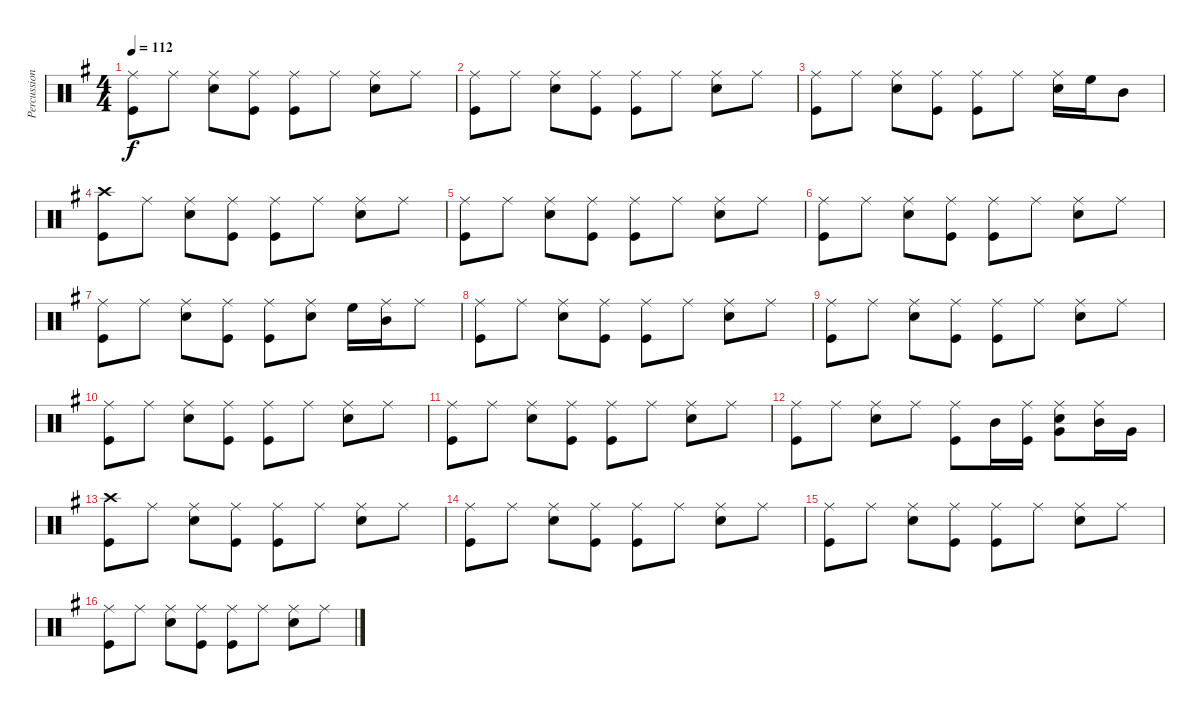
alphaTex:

\track ("Percussion" "Percussion") {instrument percussion}
\staff {score}
\articulation defaults
\ts (4 4)
\tempo 112
\clef neutral
\ks g
("Ride (middle)" "Kick (hit)").8{dy f} "Ride (middle)".8 ("Ride (middle)" "Snare (hit) 2").8 ("Ride (middle)" "Kick (hit)").8 ("Ride (middle)" "Kick (hit)").8 "Ride (middle)".8 ("Ride (middle)" "Snare (hit) 2").8 "Ride (middle)".8 |
("Ride (middle)" "Kick (hit)").8 "Ride (middle)".8 ("Ride (middle)" "Snare (hit) 2").8 ("Ride (middle)" "Kick (hit)").8 ("Ride (middle)" "Kick (hit)").8 "Ride (middle)".8 ("Ride (middle)" "Snare (hit) 2").8 "Ride (middle)".8 |
("Ride (middle)" "Kick (hit)").8 "Ride (middle)".8 ("Ride (middle)" "Snare (hit) 2").8 ("Ride (middle)" "Kick (hit)").8 ("Ride (middle)" "Kick (hit)").8 "Ride (middle)".8 ("Ride (middle)" "Snare (hit) 2").16 "High Floor Tom (hit)".16 "Mid Tom (hit)".8 |
("Crash high (hit)" "Kick (hit)").8 "Ride (middle)".8 ("Ride (middle)" "Snare (hit) 2").8 ("Ride (middle)" "Kick (hit)").8 ("Ride (middle)" "Kick (hit)").8 "Ride (middle)".8 ("Ride (middle)" "Snare (hit) 2").8 "Ride (middle)".8 |
("Ride (middle)" "Kick (hit)").8 "Ride (middle)".8 ("Ride (middle)" "Snare (hit) 2").8 ("Ride (middle)" "Kick (hit)").8 ("Ride (middle)" "Kick (hit)").8 "Ride (middle)".8 ("Ride (middle)" "Snare (hit) 2").8 "Ride (middle)".8 |
("Ride (middle)" "Kick (hit)").8 "Ride (middle)".8 ("Ride (middle)" "Snare (hit) 2").8 ("Ride (middle)" "Kick (hit)").8 ("Ride (middle)" "Kick (hit)").8 "Ride (middle)".8 ("Ride (middle)" "Snare (hit) 2").8 "Ride (middle)".8 |
("Ride (middle)" "Kick (hit)").8 "Ride (middle)".8 ("Ride (middle)" "Snare (hit) 2").8 ("Ride (middle)" "Kick (hit)").8 ("Ride (middle)" "Kick (hit)").8 ("Ride (middle)" "Snare (hit) 2").8 "High Floor Tom (hit)".16 ("Ride (middle)" "Mid Tom (hit)").16 "Ride (middle)".8 |
("Ride (middle)" "Kick (hit)").8 "Ride (middle)".8 ("Ride (middle)" "Snare (hit) 2").8 ("Ride (middle)" "Kick (hit)").8 ("Ride (middle)" "Kick (hit)").8 "Ride (middle)".8 ("Ride (middle)" "Snare (hit) 2").8 "Ride (middle)".8 |
("Ride (middle)" "Kick (hit)").8 "Ride (middle)".8 ("Ride (middle)" "Snare (hit) 2").8 ("Ride (middle)" "Kick (hit)").8 ("Ride (middle)" "Kick (hit)").8 "Ride (middle)".8 ("Ride (middle)" "Snare (hit) 2").8 "Ride (middle)".8 |
("Ride (middle)" "Kick (hit)").8 "Ride (middle)".8 ("Ride (middle)" "Snare (hit) 2").8 ("Ride (middle)" "Kick (hit)").8 ("Ride (middle)" "Kick (hit)").8 "Ride (middle)".8 ("Ride (middle)" "Snare (hit) 2").8 "Ride (middle)".8 |
("Ride (middle)" "Kick (hit)").8 "Ride (middle)".8 ("Ride (middle)" "Snare (hit) 2").8 ("Ride (middle)" "Kick (hit)").8 ("Ride (middle)" "Kick (hit)").8 "Ride (middle)".8 ("Ride (middle)" "Snare (hit) 2").8 "Ride (middle)".8 |
("Ride (middle)" "Kick (hit)").8 "Ride (middle)".8 ("Ride (middle)" "Snare (hit) 2").8 "Ride (middle)".8 ("Ride (middle)" "Kick (hit)").8 "Mid Tom (hit)".16 ("Ride (middle)" "Kick (hit)").16 ("Ride (middle)" "Very Low Tom (hit)" "Snare (hit) 2").8 ("Ride (middle)" "Mid Tom (hit)").16 "Very Low Tom (hit)".16 |
("Crash high (hit)" "Kick (hit)").8 "Ride (middle)".8 ("Ride (middle)" "Snare (hit) 2").8 ("Ride (middle)" "Kick (hit)").8 ("Ride (middle)" "Kick (hit)").8 "Ride (middle)".8 ("Ride (middle)" "Snare (hit) 2").8 "Ride (middle)".8 |
("Ride (middle)" "Kick (hit)").8 "Ride (middle)".8 ("Ride (middle)" "Snare (hit) 2").8 ("Ride (middle)" "Kick (hit)").8 ("Ride (middle)" "Kick (hit)").8 "Ride (middle)".8 ("Ride (middle)" "Snare (hit) 2").8 "Ride (middle)".8 |
("Ride (middle)" "Kick (hit)").8 "Ride (middle)".8 ("Ride (middle)" "Snare (hit) 2").8 ("Ride (middle)" "Kick (hit)").8 ("Ride (middle)" "Kick (hit)").8 "Ride (middle)".8 ("Ride (middle)" "Snare (hit) 2").8 "Ride (middle)".8 |
("Ride (middle)" "Kick (hit)").8 "Ride (middle)".8 ("Ride (middle)" "Snare (hit) 2").8 ("Ride (middle)" "Kick (hit)").8 ("Ride (middle)" "Kick (hit)").8 "Ride (middle)".8 ("Ride (middle)" "Snare (hit) 2").8 "Ride (middle)".8
